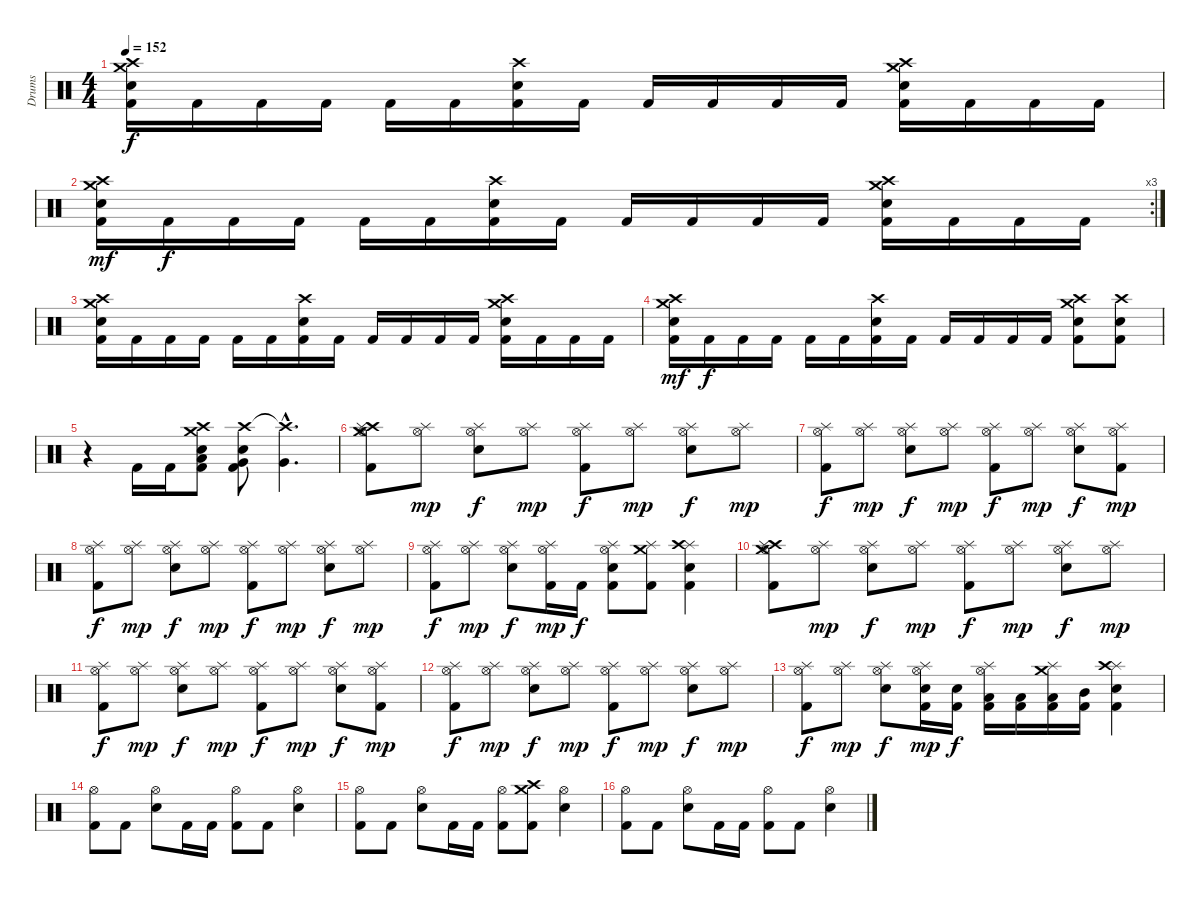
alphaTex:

\track ("Drums" "Drums") {instrument percussion}
\staff {score}
\articulation defaults
\ts (4 4)
\tempo 152
\clef neutral
\ks c
("Crash medium (hit)" "Crash high (hit)" "Snare (hit) 2" "Kick (hit) 2").16{dy f} "Kick (hit) 2".16 "Kick (hit) 2".16 "Kick (hit) 2".16 "Kick (hit) 2".16 "Kick (hit) 2".16 ("Crash high (hit)" "Snare (hit) 2" "Kick (hit) 2").16 "Kick (hit) 2".16 "Kick (hit) 2".16 "Kick (hit) 2".16 "Kick (hit) 2".16 "Kick (hit) 2".16 ("Crash medium (hit)" "Crash high (hit)" "Snare (hit) 2" "Kick (hit) 2").16 "Kick (hit) 2".16 "Kick (hit) 2".16 "Kick (hit) 2".16 |
\rc 3
("Crash medium (hit)" "Crash high (hit)" "Snare (hit) 2" "Kick (hit) 2").16{dy mf} "Kick (hit) 2".16{dy f} "Kick (hit) 2".16 "Kick (hit) 2".16 "Kick (hit) 2".16 "Kick (hit) 2".16 ("Crash high (hit)" "Snare (hit) 2" "Kick (hit) 2").16 "Kick (hit) 2".16 "Kick (hit) 2".16 "Kick (hit) 2".16 "Kick (hit) 2".16 "Kick (hit) 2".16 ("Crash medium (hit)" "Crash high (hit)" "Snare (hit) 2" "Kick (hit) 2").16 "Kick (hit) 2".16 "Kick (hit) 2".16 "Kick (hit) 2".16 |
("Crash medium (hit)" "Crash high (hit)" "Snare (hit) 2" "Kick (hit) 2").16 "Kick (hit) 2".16 "Kick (hit) 2".16 "Kick (hit) 2".16 "Kick (hit) 2".16 "Kick (hit) 2".16 ("Crash high (hit)" "Snare (hit) 2" "Kick (hit) 2").16 "Kick (hit) 2".16 "Kick (hit) 2".16 "Kick (hit) 2".16 "Kick (hit) 2".16 "Kick (hit) 2".16 ("Crash medium (hit)" "Crash high (hit)" "Snare (hit) 2" "Kick (hit) 2").16 "Kick (hit) 2".16 "Kick (hit) 2".16 "Kick (hit) 2".16 |
("Crash medium (hit)" "Crash high (hit)" "Snare (hit) 2" "Kick (hit) 2").16{dy mf} "Kick (hit) 2".16{dy f} "Kick (hit) 2".16 "Kick (hit) 2".16 "Kick (hit) 2".16 "Kick (hit) 2".16 ("Crash high (hit)" "Snare (hit) 2" "Kick (hit) 2").16 "Kick (hit) 2".16 "Kick (hit) 2".16 "Kick (hit) 2".16 "Kick (hit) 2".16 "Kick (hit) 2".16 ("Crash medium (hit)" "Crash high (hit)" "Snare (hit) 2" "Kick (hit) 2").8 ("Crash high (hit)" "Snare (hit) 2" "Kick (hit) 2").8 |
r.4 "Kick (hit) 2".16 "Kick (hit) 2".16 ("Crash medium (hit)" "Crash high (hit)" "Snare (hit) 2" "Low Tom (hit)" "Kick (hit) 2").8 ("Crash high (hit)" "Snare (hit) 2" "Very Low Tom (hit)" "Kick (hit) 2").8 ("Crash high (hit)"{hac t} "Very Low Tom (hit)"{hac}).4{d} |
("Hi-Hat (open)" "Crash medium (hit)" "Crash high (hit)" "Splash (hit)" "Kick (hit) 2").8 ("Hi-Hat (open)" "Splash (hit)").8{dy mp} ("Hi-Hat (open)" "Splash (hit)" "Snare (hit) 2").8{dy f} ("Hi-Hat (open)" "Splash (hit)").8{dy mp} ("Hi-Hat (open)" "Splash (hit)" "Kick (hit) 2").8{dy f} ("Hi-Hat (open)" "Splash (hit)").8{dy mp} ("Hi-Hat (open)" "Splash (hit)" "Snare (hit) 2").8{dy f} ("Hi-Hat (open)" "Splash (hit)").8{dy mp} |
("Hi-Hat (open)" "Splash (hit)" "Kick (hit) 2").8{dy f} ("Hi-Hat (open)" "Splash (hit)").8{dy mp} ("Hi-Hat (open)" "Splash (hit)" "Snare (hit) 2").8{dy f} ("Hi-Hat (open)" "Splash (hit)").8{dy mp} ("Hi-Hat (open)" "Splash (hit)" "Kick (hit) 2").8{dy f} ("Hi-Hat (open)" "Splash (hit)").8{dy mp} ("Hi-Hat (open)" "Splash (hit)" "Snare (hit) 2").8{dy f} ("Hi-Hat (open)" "Splash (hit)" "Kick (hit) 2").8{dy mp} |
("Hi-Hat (open)" "Splash (hit)" "Kick (hit) 2").8{dy f} ("Hi-Hat (open)" "Splash (hit)").8{dy mp} ("Hi-Hat (open)" "Splash (hit)" "Snare (hit) 2").8{dy f} ("Hi-Hat (open)" "Splash (hit)").8{dy mp} ("Hi-Hat (open)" "Splash (hit)" "Kick (hit) 2").8{dy f} ("Hi-Hat (open)" "Splash (hit)").8{dy mp} ("Hi-Hat (open)" "Splash (hit)" "Snare (hit) 2").8{dy f} ("Hi-Hat (open)" "Splash (hit)").8{dy mp} |
("Hi-Hat (open)" "Splash (hit)" "Kick (hit) 2").8{dy f} ("Hi-Hat (open)" "Splash (hit)").8{dy mp} ("Hi-Hat (open)" "Splash (hit)" "Snare (hit) 2").8{dy f} ("Hi-Hat (open)" "Splash (hit)" "Kick (hit) 2").16{dy mp} "Kick (hit) 2".16{dy f} ("Hi-Hat (open)" "Splash (hit)" "Snare (hit) 2" "Kick (hit) 2").8 ("Splash (hit)" "Crash medium (hit)" "Kick (hit) 2").8 ("Splash (hit)" "Crash high (hit)" "Snare (hit) 2" "Kick (hit) 2").4 |
("Hi-Hat (open)" "Crash medium (hit)" "Crash high (hit)" "Splash (hit)" "Kick (hit) 2").8 ("Hi-Hat (open)" "Splash (hit)").8{dy mp} ("Hi-Hat (open)" "Splash (hit)" "Snare (hit) 2").8{dy f} ("Hi-Hat (open)" "Splash (hit)").8{dy mp} ("Hi-Hat (open)" "Splash (hit)" "Kick (hit) 2").8{dy f} ("Hi-Hat (open)" "Splash (hit)").8{dy mp} ("Hi-Hat (open)" "Splash (hit)" "Snare (hit) 2").8{dy f} ("Hi-Hat (open)" "Splash (hit)").8{dy mp} |
("Hi-Hat (open)" "Splash (hit)" "Kick (hit) 2").8{dy f} ("Hi-Hat (open)" "Splash (hit)").8{dy mp} ("Hi-Hat (open)" "Splash (hit)" "Snare (hit) 2").8{dy f} ("Hi-Hat (open)" "Splash (hit)").8{dy mp} ("Hi-Hat (open)" "Splash (hit)" "Kick (hit) 2").8{dy f} ("Hi-Hat (open)" "Splash (hit)").8{dy mp} ("Hi-Hat (open)" "Splash (hit)" "Snare (hit) 2").8{dy f} ("Hi-Hat (open)" "Splash (hit)" "Kick (hit) 2").8{dy mp} |
("Hi-Hat (open)" "Splash (hit)" "Kick (hit) 2").8{dy f} ("Hi-Hat (open)" "Splash (hit)").8{dy mp} ("Hi-Hat (open)" "Splash (hit)" "Snare (hit) 2").8{dy f} ("Hi-Hat (open)" "Splash (hit)").8{dy mp} ("Hi-Hat (open)" "Splash (hit)" "Kick (hit) 2").8{dy f} ("Hi-Hat (open)" "Splash (hit)").8{dy mp} ("Hi-Hat (open)" "Splash (hit)" "Snare (hit) 2").8{dy f} ("Hi-Hat (open)" "Splash (hit)").8{dy mp} |
("Hi-Hat (open)" "Splash (hit)" "Kick (hit) 2").8{dy f} ("Hi-Hat (open)" "Splash (hit)").8{dy mp} ("Hi-Hat (open)" "Splash (hit)" "Snare (hit) 2").8{dy f} ("Hi-Hat (open)" "Splash (hit)" "Snare (hit) 2" "Kick (hit) 2").16{dy mp} ("Snare (hit) 2" "Kick (hit) 2").16{dy f} ("Hi-Hat (open)" "Splash (hit)" "Low Tom (hit)" "Kick (hit) 2").16 ("Low Tom (hit)" "Kick (hit) 2").16 ("Splash (hit)" "Crash medium (hit)" "Low Tom (hit)" "Kick (hit) 2").16 ("Mid Tom (hit)" "Kick (hit) 2").16 ("Splash (hit)" "Crash high (hit)" "Snare (hit) 2" "Kick (hit) 2").4 |
("Hi-Hat (open)" "Kick (hit) 2").8 "Kick (hit) 2".8 ("Hi-Hat (open)" "Snare (hit) 2").8 "Kick (hit) 2".16 "Kick (hit) 2".16 ("Hi-Hat (open)" "Kick (hit) 2").8 "Kick (hit) 2".8 ("Hi-Hat (open)" "Snare (hit) 2").4 |
("Hi-Hat (open)" "Kick (hit) 2").8 "Kick (hit) 2".8 ("Hi-Hat (open)" "Snare (hit) 2").8 "Kick (hit) 2".16 "Kick (hit) 2".16 ("Hi-Hat (open)" "Kick (hit) 2").8 ("Crash medium (hit)" "Crash high (hit)" "Kick (hit) 2").8 ("Hi-Hat (open)" "Snare (hit) 2").4 |
("Hi-Hat (open)" "Kick (hit) 2").8 "Kick (hit) 2".8 ("Hi-Hat (open)" "Snare (hit) 2").8 "Kick (hit) 2".16 "Kick (hit) 2".16 ("Hi-Hat (open)" "Kick (hit) 2").8 "Kick (hit) 2".8 ("Hi-Hat (open)" "Snare (hit) 2").4
